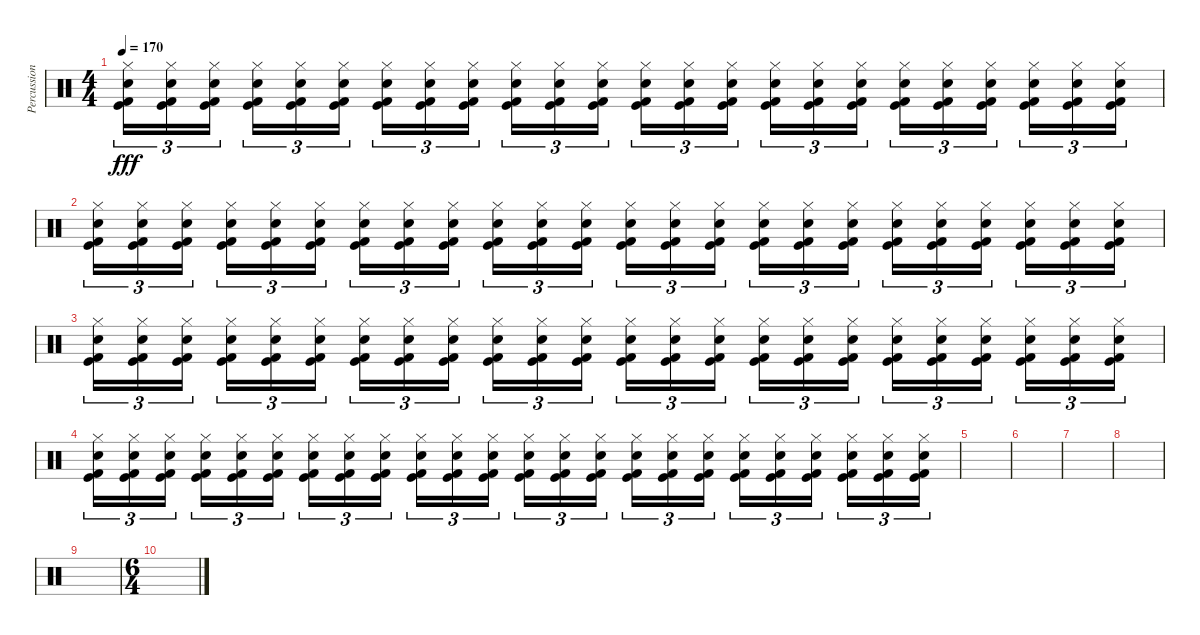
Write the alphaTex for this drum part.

\track ("Percussion" "Percussion") {instrument percussion}
\staff {score}
\articulation defaults
\ts (4 4)
\tempo 170
\clef neutral
\ks c
("Hi-Hat (closed)" "Snare (hit) 2" "Kick (hit) 2" "Kick (hit)").16{tu (3 2) dy fff volume 4 balance 0} ("Hi-Hat (closed)" "Snare (hit) 2" "Kick (hit) 2" "Kick (hit)").16{tu (3 2)} ("Hi-Hat (closed)" "Snare (hit) 2" "Kick (hit) 2" "Kick (hit)").16{tu (3 2) beam splitsecondary} ("Hi-Hat (closed)" "Snare (hit) 2" "Kick (hit) 2" "Kick (hit)").16{tu (3 2)} ("Hi-Hat (closed)" "Snare (hit) 2" "Kick (hit) 2" "Kick (hit)").16{tu (3 2)} ("Hi-Hat (closed)" "Snare (hit) 2" "Kick (hit) 2" "Kick (hit)").16{tu (3 2)} ("Hi-Hat (closed)" "Snare (hit) 2" "Kick (hit) 2" "Kick (hit)").16{tu (3 2)} ("Hi-Hat (closed)" "Snare (hit) 2" "Kick (hit) 2" "Kick (hit)").16{tu (3 2)} ("Hi-Hat (closed)" "Snare (hit) 2" "Kick (hit) 2" "Kick (hit)").16{tu (3 2) beam splitsecondary} ("Hi-Hat (closed)" "Snare (hit) 2" "Kick (hit) 2" "Kick (hit)").16{tu (3 2)} ("Hi-Hat (closed)" "Snare (hit) 2" "Kick (hit) 2" "Kick (hit)").16{tu (3 2)} ("Hi-Hat (closed)" "Snare (hit) 2" "Kick (hit) 2" "Kick (hit)").16{tu (3 2)} ("Hi-Hat (closed)" "Snare (hit) 2" "Kick (hit) 2" "Kick (hit)").16{tu (3 2)} ("Hi-Hat (closed)" "Snare (hit) 2" "Kick (hit) 2" "Kick (hit)").16{tu (3 2)} ("Hi-Hat (closed)" "Snare (hit) 2" "Kick (hit) 2" "Kick (hit)").16{tu (3 2) beam splitsecondary} ("Hi-Hat (closed)" "Snare (hit) 2" "Kick (hit) 2" "Kick (hit)").16{tu (3 2)} ("Hi-Hat (closed)" "Snare (hit) 2" "Kick (hit) 2" "Kick (hit)").16{tu (3 2)} ("Hi-Hat (closed)" "Snare (hit) 2" "Kick (hit) 2" "Kick (hit)").16{tu (3 2)} ("Hi-Hat (closed)" "Snare (hit) 2" "Kick (hit) 2" "Kick (hit)").16{tu (3 2)} ("Hi-Hat (closed)" "Snare (hit) 2" "Kick (hit) 2" "Kick (hit)").16{tu (3 2)} ("Hi-Hat (closed)" "Snare (hit) 2" "Kick (hit) 2" "Kick (hit)").16{tu (3 2) beam splitsecondary} ("Hi-Hat (closed)" "Snare (hit) 2" "Kick (hit) 2" "Kick (hit)").16{tu (3 2)} ("Hi-Hat (closed)" "Snare (hit) 2" "Kick (hit) 2" "Kick (hit)").16{tu (3 2)} ("Hi-Hat (closed)" "Snare (hit) 2" "Kick (hit) 2" "Kick (hit)").16{tu (3 2)} |
("Hi-Hat (closed)" "Snare (hit) 2" "Kick (hit) 2" "Kick (hit)").16{tu (3 2)} ("Hi-Hat (closed)" "Snare (hit) 2" "Kick (hit) 2" "Kick (hit)").16{tu (3 2)} ("Hi-Hat (closed)" "Snare (hit) 2" "Kick (hit) 2" "Kick (hit)").16{tu (3 2) beam splitsecondary} ("Hi-Hat (closed)" "Snare (hit) 2" "Kick (hit) 2" "Kick (hit)").16{tu (3 2)} ("Hi-Hat (closed)" "Snare (hit) 2" "Kick (hit) 2" "Kick (hit)").16{tu (3 2)} ("Hi-Hat (closed)" "Snare (hit) 2" "Kick (hit) 2" "Kick (hit)").16{tu (3 2)} ("Hi-Hat (closed)" "Snare (hit) 2" "Kick (hit) 2" "Kick (hit)").16{tu (3 2)} ("Hi-Hat (closed)" "Snare (hit) 2" "Kick (hit) 2" "Kick (hit)").16{tu (3 2)} ("Hi-Hat (closed)" "Snare (hit) 2" "Kick (hit) 2" "Kick (hit)").16{tu (3 2) beam splitsecondary} ("Hi-Hat (closed)" "Snare (hit) 2" "Kick (hit) 2" "Kick (hit)").16{tu (3 2)} ("Hi-Hat (closed)" "Snare (hit) 2" "Kick (hit) 2" "Kick (hit)").16{tu (3 2)} ("Hi-Hat (closed)" "Snare (hit) 2" "Kick (hit) 2" "Kick (hit)").16{tu (3 2)} ("Hi-Hat (closed)" "Snare (hit) 2" "Kick (hit) 2" "Kick (hit)").16{tu (3 2)} ("Hi-Hat (closed)" "Snare (hit) 2" "Kick (hit) 2" "Kick (hit)").16{tu (3 2)} ("Hi-Hat (closed)" "Snare (hit) 2" "Kick (hit) 2" "Kick (hit)").16{tu (3 2) beam splitsecondary} ("Hi-Hat (closed)" "Snare (hit) 2" "Kick (hit) 2" "Kick (hit)").16{tu (3 2)} ("Hi-Hat (closed)" "Snare (hit) 2" "Kick (hit) 2" "Kick (hit)").16{tu (3 2)} ("Hi-Hat (closed)" "Snare (hit) 2" "Kick (hit) 2" "Kick (hit)").16{tu (3 2)} ("Hi-Hat (closed)" "Snare (hit) 2" "Kick (hit) 2" "Kick (hit)").16{tu (3 2)} ("Hi-Hat (closed)" "Snare (hit) 2" "Kick (hit) 2" "Kick (hit)").16{tu (3 2)} ("Hi-Hat (closed)" "Snare (hit) 2" "Kick (hit) 2" "Kick (hit)").16{tu (3 2) beam splitsecondary} ("Hi-Hat (closed)" "Snare (hit) 2" "Kick (hit) 2" "Kick (hit)").16{tu (3 2)} ("Hi-Hat (closed)" "Snare (hit) 2" "Kick (hit) 2" "Kick (hit)").16{tu (3 2)} ("Hi-Hat (closed)" "Snare (hit) 2" "Kick (hit) 2" "Kick (hit)").16{tu (3 2)} |
("Hi-Hat (closed)" "Snare (hit) 2" "Kick (hit) 2" "Kick (hit)").16{tu (3 2)} ("Hi-Hat (closed)" "Snare (hit) 2" "Kick (hit) 2" "Kick (hit)").16{tu (3 2)} ("Hi-Hat (closed)" "Snare (hit) 2" "Kick (hit) 2" "Kick (hit)").16{tu (3 2) beam splitsecondary} ("Hi-Hat (closed)" "Snare (hit) 2" "Kick (hit) 2" "Kick (hit)").16{tu (3 2)} ("Hi-Hat (closed)" "Snare (hit) 2" "Kick (hit) 2" "Kick (hit)").16{tu (3 2)} ("Hi-Hat (closed)" "Snare (hit) 2" "Kick (hit) 2" "Kick (hit)").16{tu (3 2)} ("Hi-Hat (closed)" "Snare (hit) 2" "Kick (hit) 2" "Kick (hit)").16{tu (3 2)} ("Hi-Hat (closed)" "Snare (hit) 2" "Kick (hit) 2" "Kick (hit)").16{tu (3 2)} ("Hi-Hat (closed)" "Snare (hit) 2" "Kick (hit) 2" "Kick (hit)").16{tu (3 2) beam splitsecondary} ("Hi-Hat (closed)" "Snare (hit) 2" "Kick (hit) 2" "Kick (hit)").16{tu (3 2)} ("Hi-Hat (closed)" "Snare (hit) 2" "Kick (hit) 2" "Kick (hit)").16{tu (3 2)} ("Hi-Hat (closed)" "Snare (hit) 2" "Kick (hit) 2" "Kick (hit)").16{tu (3 2)} ("Hi-Hat (closed)" "Snare (hit) 2" "Kick (hit) 2" "Kick (hit)").16{tu (3 2)} ("Hi-Hat (closed)" "Snare (hit) 2" "Kick (hit) 2" "Kick (hit)").16{tu (3 2)} ("Hi-Hat (closed)" "Snare (hit) 2" "Kick (hit) 2" "Kick (hit)").16{tu (3 2) beam splitsecondary} ("Hi-Hat (closed)" "Snare (hit) 2" "Kick (hit) 2" "Kick (hit)").16{tu (3 2)} ("Hi-Hat (closed)" "Snare (hit) 2" "Kick (hit) 2" "Kick (hit)").16{tu (3 2)} ("Hi-Hat (closed)" "Snare (hit) 2" "Kick (hit) 2" "Kick (hit)").16{tu (3 2)} ("Hi-Hat (closed)" "Snare (hit) 2" "Kick (hit) 2" "Kick (hit)").16{tu (3 2)} ("Hi-Hat (closed)" "Snare (hit) 2" "Kick (hit) 2" "Kick (hit)").16{tu (3 2)} ("Hi-Hat (closed)" "Snare (hit) 2" "Kick (hit) 2" "Kick (hit)").16{tu (3 2) beam splitsecondary} ("Hi-Hat (closed)" "Snare (hit) 2" "Kick (hit) 2" "Kick (hit)").16{tu (3 2)} ("Hi-Hat (closed)" "Snare (hit) 2" "Kick (hit) 2" "Kick (hit)").16{tu (3 2)} ("Hi-Hat (closed)" "Snare (hit) 2" "Kick (hit) 2" "Kick (hit)").16{tu (3 2)} |
("Hi-Hat (closed)" "Snare (hit) 2" "Kick (hit) 2" "Kick (hit)").16{tu (3 2)} ("Hi-Hat (closed)" "Snare (hit) 2" "Kick (hit) 2" "Kick (hit)").16{tu (3 2)} ("Hi-Hat (closed)" "Snare (hit) 2" "Kick (hit) 2" "Kick (hit)").16{tu (3 2) beam splitsecondary} ("Hi-Hat (closed)" "Snare (hit) 2" "Kick (hit) 2" "Kick (hit)").16{tu (3 2)} ("Hi-Hat (closed)" "Snare (hit) 2" "Kick (hit) 2" "Kick (hit)").16{tu (3 2)} ("Hi-Hat (closed)" "Snare (hit) 2" "Kick (hit) 2" "Kick (hit)").16{tu (3 2)} ("Hi-Hat (closed)" "Snare (hit) 2" "Kick (hit) 2" "Kick (hit)").16{tu (3 2)} ("Hi-Hat (closed)" "Snare (hit) 2" "Kick (hit) 2" "Kick (hit)").16{tu (3 2)} ("Hi-Hat (closed)" "Snare (hit) 2" "Kick (hit) 2" "Kick (hit)").16{tu (3 2) beam splitsecondary} ("Hi-Hat (closed)" "Snare (hit) 2" "Kick (hit) 2" "Kick (hit)").16{tu (3 2)} ("Hi-Hat (closed)" "Snare (hit) 2" "Kick (hit) 2" "Kick (hit)").16{tu (3 2)} ("Hi-Hat (closed)" "Snare (hit) 2" "Kick (hit) 2" "Kick (hit)").16{tu (3 2)} ("Hi-Hat (closed)" "Snare (hit) 2" "Kick (hit) 2" "Kick (hit)").16{tu (3 2)} ("Hi-Hat (closed)" "Snare (hit) 2" "Kick (hit) 2" "Kick (hit)").16{tu (3 2)} ("Hi-Hat (closed)" "Snare (hit) 2" "Kick (hit) 2" "Kick (hit)").16{tu (3 2) beam splitsecondary} ("Hi-Hat (closed)" "Snare (hit) 2" "Kick (hit) 2" "Kick (hit)").16{tu (3 2)} ("Hi-Hat (closed)" "Snare (hit) 2" "Kick (hit) 2" "Kick (hit)").16{tu (3 2)} ("Hi-Hat (closed)" "Snare (hit) 2" "Kick (hit) 2" "Kick (hit)").16{tu (3 2)} ("Hi-Hat (closed)" "Snare (hit) 2" "Kick (hit) 2" "Kick (hit)").16{tu (3 2)} ("Hi-Hat (closed)" "Snare (hit) 2" "Kick (hit) 2" "Kick (hit)").16{tu (3 2)} ("Hi-Hat (closed)" "Snare (hit) 2" "Kick (hit) 2" "Kick (hit)").16{tu (3 2) beam splitsecondary} ("Hi-Hat (closed)" "Snare (hit) 2" "Kick (hit) 2" "Kick (hit)").16{tu (3 2)} ("Hi-Hat (closed)" "Snare (hit) 2" "Kick (hit) 2" "Kick (hit)").16{tu (3 2)} ("Hi-Hat (closed)" "Snare (hit) 2" "Kick (hit) 2" "Kick (hit)").16{tu (3 2)} |
|
|
|
|
|
\ts (6 4)
